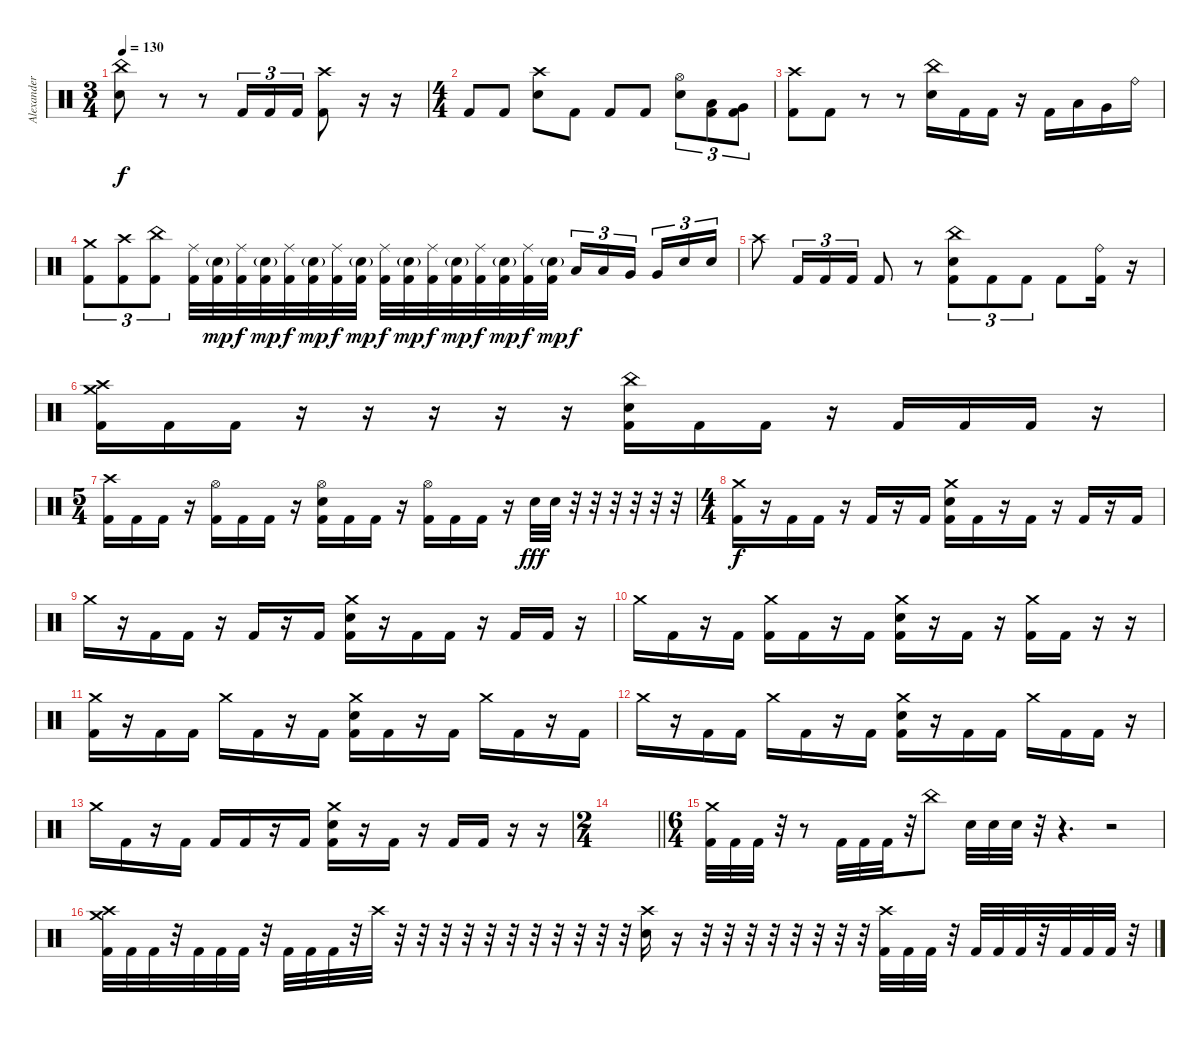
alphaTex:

\track ("Alexander Yazykov" "Alexander ") {instrument percussion}
\staff {score}
\articulation defaults
\ts (3 4)
\tempo 130
\clef neutral
\ks c
("China (hit)" "Electric Snare (hit)").8{dy f} r.8 r.8 "Kick (hit) 2".16{tu (3 2)} "Kick (hit) 2".16{tu (3 2)} "Kick (hit) 2".16{tu (3 2)} ("Crash high (hit)" "Kick (hit) 2").8 r.16 r.16 |
\ts (4 4)
"Kick (hit) 2".8 "Kick (hit) 2".8 ("Crash high (hit)" "Electric Snare (hit)").8 "Kick (hit) 2".8 "Kick (hit) 2".8 "Kick (hit) 2".8 ("Hi-Hat (open)" "Electric Snare (hit)").8{tu (3 2)} ("Low Tom (hit)" "Kick (hit) 2").8{tu (3 2)} ("Very Low Tom (hit)" "Kick (hit) 2").8{tu (3 2)} |
("Crash high (hit)" "Kick (hit) 2").8 "Kick (hit) 2".8 r.8 r.8 ("China (hit)" "Electric Snare (hit)").16 "Kick (hit) 2".16 "Kick (hit) 2".16 r.16 "Kick (hit) 2".16 "Low Tom (hit)".16 "Very Low Tom (hit)".16 "Ride (bell)".16 |
("Crash medium (hit)" "Kick (hit) 2").8{tu (3 2)} ("Crash high (hit)" "Kick (hit) 2").8{tu (3 2)} ("China (hit)" "Kick (hit) 2").8{tu (3 2)} ("Ride (middle)" "Kick (hit) 2").32 ("Electric Snare (hit)"{g} "Kick (hit) 2").32{dy mp} ("Ride (middle)" "Kick (hit) 2").32{dy f} ("Electric Snare (hit)"{g} "Kick (hit) 2").32{dy mp} ("Ride (middle)" "Kick (hit) 2").32{dy f} ("Electric Snare (hit)"{g} "Kick (hit) 2").32{dy mp} ("Ride (middle)" "Kick (hit) 2").32{dy f} ("Electric Snare (hit)"{g} "Kick (hit) 2").32{dy mp} ("Ride (middle)" "Kick (hit) 2").32{dy f} ("Electric Snare (hit)"{g} "Kick (hit) 2").32{dy mp} ("Ride (middle)" "Kick (hit) 2").32{dy f} ("Electric Snare (hit)"{g} "Kick (hit) 2").32{dy mp} ("Ride (middle)" "Kick (hit) 2").32{dy f} ("Electric Snare (hit)"{g} "Kick (hit) 2").32{dy mp} ("Ride (middle)" "Kick (hit) 2").32{dy f} ("Electric Snare (hit)"{g} "Kick (hit) 2").32{dy mp} "Low Tom (hit)".16{tu (3 2) dy f} "Low Tom (hit)".16{tu (3 2)} "Very Low Tom (hit)".16{tu (3 2) beam splitsecondary} "Very Low Tom (hit)".16{tu (3 2)} "Electric Snare (hit)".16{tu (3 2)} "Electric Snare (hit)".16{tu (3 2)} |
"Crash high (hit)".8 "Kick (hit) 2".16{tu (3 2)} "Kick (hit) 2".16{tu (3 2)} "Kick (hit) 2".16{tu (3 2)} "Kick (hit) 2".8 r.8 ("China (hit)" "Electric Snare (hit)" "Kick (hit) 2").8{tu (3 2)} "Kick (hit) 2".8{tu (3 2)} "Kick (hit) 2".8{tu (3 2)} "Kick (hit) 2".8 ("Ride (bell)" "Kick (hit) 2").16 r.16 |
("Crash medium (hit)" "Crash high (hit)" "Kick (hit) 2").16 "Kick (hit) 2".16 "Kick (hit) 2".16 r.16 r.16 r.16 r.16 r.16 ("China (hit)" "Electric Snare (hit)" "Kick (hit) 2").16 "Kick (hit) 2".16 "Kick (hit) 2".16 r.16 "Kick (hit) 2".16 "Kick (hit) 2".16 "Kick (hit) 2".16 r.16 |
\ts (5 4)
("Crash high (hit)" "Kick (hit) 2").16 "Kick (hit) 2".16 "Kick (hit) 2".16 r.16 ("Hi-Hat (open)" "Kick (hit) 2").16 "Kick (hit) 2".16 "Kick (hit) 2".16 r.16 ("Hi-Hat (open)" "Electric Snare (hit)" "Kick (hit) 2").16 "Kick (hit) 2".16 "Kick (hit) 2".16 r.16 ("Hi-Hat (open)" "Kick (hit) 2").16 "Kick (hit) 2".16 "Kick (hit) 2".16 r.16 "Electric Snare (hit)".32{dy fff} "Electric Snare (hit)".32 r.32 r.32 r.32 r.32 r.32 r.32 |
\ts (4 4)
("Crash medium (hit)" "Kick (hit) 2").16{dy f} r.16 "Kick (hit) 2".16 "Kick (hit) 2".16 r.16 "Kick (hit) 2".16 r.16 "Kick (hit) 2".16 ("Crash medium (hit)" "Electric Snare (hit)" "Kick (hit) 2").16 "Kick (hit) 2".16 r.16 "Kick (hit) 2".16 r.16 "Kick (hit) 2".16 r.16 "Kick (hit) 2".16 |
"Crash medium (hit)".16 r.16 "Kick (hit) 2".16 "Kick (hit) 2".16 r.16 "Kick (hit) 2".16 r.16 "Kick (hit) 2".16 ("Crash medium (hit)" "Electric Snare (hit)" "Kick (hit) 2").16 r.16 "Kick (hit) 2".16 "Kick (hit) 2".16 r.16 "Kick (hit) 2".16 "Kick (hit) 2".16 r.16 |
"Crash medium (hit)".16 "Kick (hit) 2".16 r.16 "Kick (hit) 2".16 ("Crash medium (hit)" "Kick (hit) 2").16 "Kick (hit) 2".16 r.16 "Kick (hit) 2".16 ("Crash medium (hit)" "Electric Snare (hit)" "Kick (hit) 2").16 r.16 "Kick (hit) 2".16 r.16 ("Crash medium (hit)" "Kick (hit) 2").16 "Kick (hit) 2".16 r.16 r.16 |
("Crash medium (hit)" "Kick (hit) 2").16 r.16 "Kick (hit) 2".16 "Kick (hit) 2".16 "Crash medium (hit)".16 "Kick (hit) 2".16 r.16 "Kick (hit) 2".16 ("Crash medium (hit)" "Electric Snare (hit)" "Kick (hit) 2").16 "Kick (hit) 2".16 r.16 "Kick (hit) 2".16 "Crash medium (hit)".16 "Kick (hit) 2".16 r.16 "Kick (hit) 2".16 |
"Crash medium (hit)".16 r.16 "Kick (hit) 2".16 "Kick (hit) 2".16 "Crash medium (hit)".16 "Kick (hit) 2".16 r.16 "Kick (hit) 2".16 ("Crash medium (hit)" "Electric Snare (hit)" "Kick (hit) 2").16 r.16 "Kick (hit) 2".16 "Kick (hit) 2".16 "Crash medium (hit)".16 "Kick (hit) 2".16 "Kick (hit) 2".16 r.16 |
"Crash medium (hit)".16 "Kick (hit) 2".16 r.16 "Kick (hit) 2".16 "Kick (hit) 2".16 "Kick (hit) 2".16 r.16 "Kick (hit) 2".16 ("Crash medium (hit)" "Electric Snare (hit)" "Kick (hit) 2").16 r.16 "Kick (hit) 2".16 r.16 "Kick (hit) 2".16 "Kick (hit) 2".16 r.16 r.16 |
\ts (2 4)
\barLineRight lightlight
|
\ts (6 4)
("Crash medium (hit)" "Kick (hit) 2").32 "Kick (hit) 2".32 "Kick (hit) 2".32 r.32 r.8 "Kick (hit) 2".32 "Kick (hit) 2".32 "Kick (hit) 2".32 r.32 "China (hit)".8 "Electric Snare (hit)".32 "Electric Snare (hit)".32 "Electric Snare (hit)".32 r.32 r.4{d} r.2 |
("Crash high (hit)" "Crash medium (hit)" "Kick (hit) 2").32 "Kick (hit) 2".32 "Kick (hit) 2".32 r.32 "Kick (hit) 2".32 "Kick (hit) 2".32 "Kick (hit) 2".32 r.32 "Kick (hit) 2".32 "Kick (hit) 2".32 "Kick (hit) 2".32 r.32 "Crash high (hit)".32 r.32 r.32 r.32 r.32 r.32 r.32 r.32 r.32 r.32 r.32 r.32 ("Crash high (hit)" "Electric Snare (hit)").16 r.16 r.32 r.32 r.32 r.32 r.32 r.32 r.32 r.32 ("Crash high (hit)" "Kick (hit) 2").32 "Kick (hit) 2".32 "Kick (hit) 2".32 r.32 "Kick (hit) 2".32 "Kick (hit) 2".32 "Kick (hit) 2".32 r.32 "Kick (hit) 2".32 "Kick (hit) 2".32 "Kick (hit) 2".32 r.32
